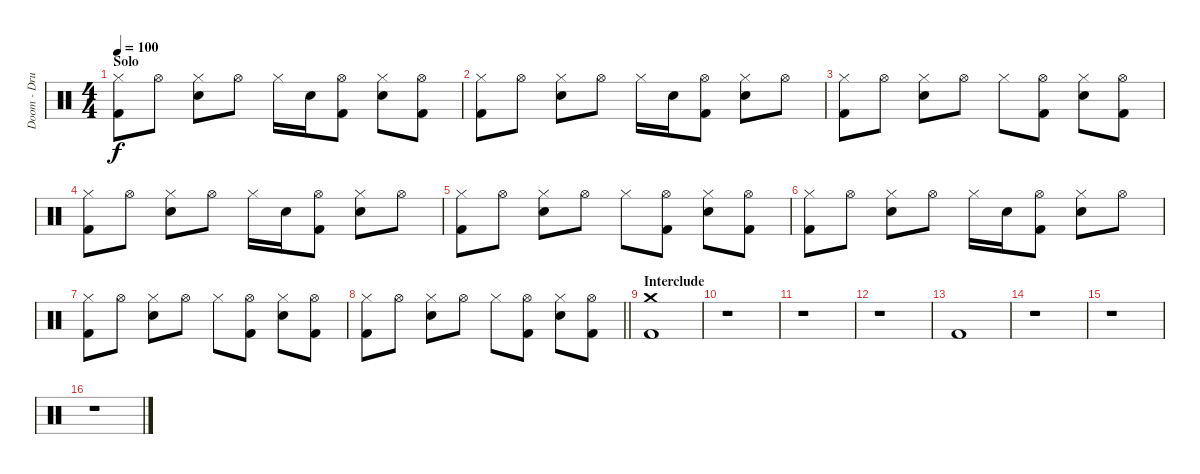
\track ("Doom - Drums" "Doom - Dru") {instrument percussion}
\staff {score}
\articulation defaults
\ts (4 4)
\section ("" "Solo")
\tempo 100
\clef neutral
\ks c
("Hi-Hat (closed)" "Kick (hit) 2").8{dy f} "Hi-Hat (open)".8 ("Hi-Hat (closed)" "Snare (hit) 2").8 "Hi-Hat (open)".8 "Hi-Hat (closed)".16 "Snare (hit) 2".16 ("Hi-Hat (open)" "Kick (hit) 2").8 ("Hi-Hat (closed)" "Snare (hit) 2").8 ("Hi-Hat (open)" "Kick (hit) 2").8 |
("Hi-Hat (closed)" "Kick (hit) 2").8 "Hi-Hat (open)".8 ("Hi-Hat (closed)" "Snare (hit) 2").8 "Hi-Hat (open)".8 "Hi-Hat (closed)".16 "Snare (hit) 2".16 ("Hi-Hat (open)" "Kick (hit) 2").8 ("Hi-Hat (closed)" "Snare (hit) 2").8 "Hi-Hat (open)".8 |
("Hi-Hat (closed)" "Kick (hit) 2").8 "Hi-Hat (open)".8 ("Hi-Hat (closed)" "Snare (hit) 2").8 "Hi-Hat (open)".8 "Hi-Hat (closed)".8 ("Hi-Hat (open)" "Kick (hit) 2").8 ("Hi-Hat (closed)" "Snare (hit) 2").8 ("Hi-Hat (open)" "Kick (hit) 2").8 |
("Hi-Hat (closed)" "Kick (hit) 2").8 "Hi-Hat (open)".8 ("Hi-Hat (closed)" "Snare (hit) 2").8 "Hi-Hat (open)".8 "Hi-Hat (closed)".16 "Snare (hit) 2".16 ("Hi-Hat (open)" "Kick (hit) 2").8 ("Hi-Hat (closed)" "Snare (hit) 2").8 "Hi-Hat (open)".8 |
("Hi-Hat (closed)" "Kick (hit) 2").8 "Hi-Hat (open)".8 ("Hi-Hat (closed)" "Snare (hit) 2").8 "Hi-Hat (open)".8 "Hi-Hat (closed)".8 ("Hi-Hat (open)" "Kick (hit) 2").8 ("Hi-Hat (closed)" "Snare (hit) 2").8 ("Hi-Hat (open)" "Kick (hit) 2").8 |
("Hi-Hat (closed)" "Kick (hit) 2").8 "Hi-Hat (open)".8 ("Hi-Hat (closed)" "Snare (hit) 2").8 "Hi-Hat (open)".8 "Hi-Hat (closed)".16 "Snare (hit) 2".16 ("Hi-Hat (open)" "Kick (hit) 2").8 ("Hi-Hat (closed)" "Snare (hit) 2").8 "Hi-Hat (open)".8 |
("Hi-Hat (closed)" "Kick (hit) 2").8 "Hi-Hat (open)".8 ("Hi-Hat (closed)" "Snare (hit) 2").8 "Hi-Hat (open)".8 "Hi-Hat (closed)".8 ("Hi-Hat (open)" "Kick (hit) 2").8 ("Hi-Hat (closed)" "Snare (hit) 2").8 ("Hi-Hat (open)" "Kick (hit) 2").8 |
\barLineRight lightlight
("Hi-Hat (closed)" "Kick (hit) 2").8 "Hi-Hat (open)".8 ("Hi-Hat (closed)" "Snare (hit) 2").8 "Hi-Hat (open)".8 "Hi-Hat (closed)".8 ("Hi-Hat (open)" "Kick (hit) 2").8 ("Hi-Hat (closed)" "Snare (hit) 2").8 ("Hi-Hat (open)" "Kick (hit) 2").8 |
\section ("" "Interclude")
("Crash medium (hit)" "Kick (hit) 2").1 |
r.1 |
r.1 |
r.1 |
"Kick (hit) 2".1 |
r.1 |
r.1 |
r.1
